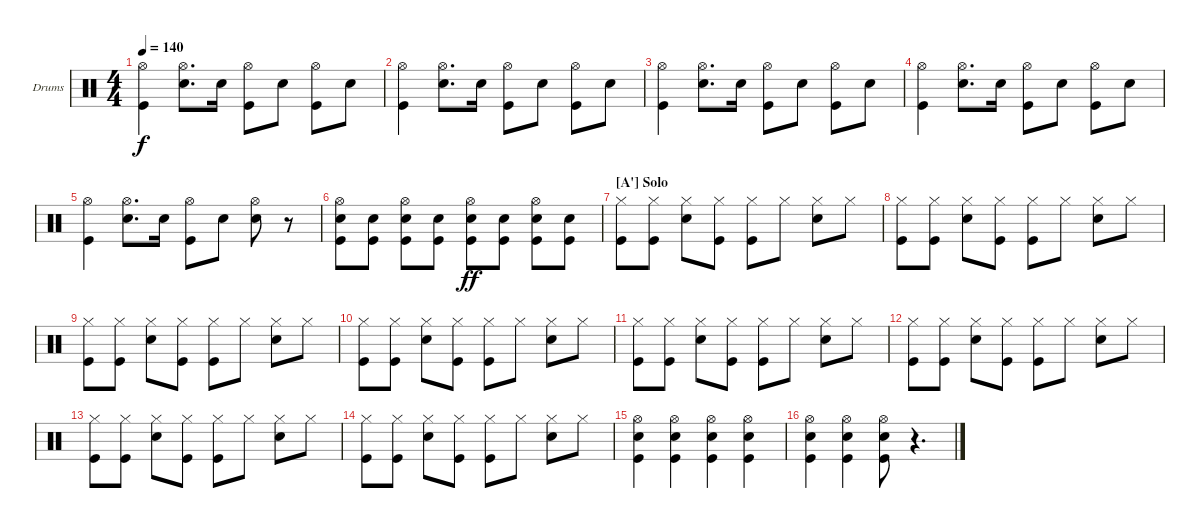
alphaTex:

\bracketExtendMode groupsimilarinstruments
\firstSystemTrackNameOrientation horizontal
\otherSystemsTrackNameOrientation horizontal
\track ("Fabrizio Moretti" "Drums") {instrument percussion}
\staff {score}
\articulation defaults
\ts (4 4)
\tempo 140
\clef neutral
\ks aminor
("Hi-Hat (open)" "Kick (hit)").4{dy f} ("Hi-Hat (open)" "Snare (hit) 2").8{d} "Snare (hit) 2".16 ("Hi-Hat (open)" "Kick (hit)").8 "Snare (hit) 2".8 ("Hi-Hat (open)" "Kick (hit)").8 "Snare (hit) 2".8 |
("Hi-Hat (open)" "Kick (hit)").4 ("Hi-Hat (open)" "Snare (hit) 2").8{d} "Snare (hit) 2".16 ("Hi-Hat (open)" "Kick (hit)").8 "Snare (hit) 2".8 ("Hi-Hat (open)" "Kick (hit)").8 "Snare (hit) 2".8 |
("Hi-Hat (open)" "Kick (hit)").4 ("Hi-Hat (open)" "Snare (hit) 2").8{d} "Snare (hit) 2".16 ("Hi-Hat (open)" "Kick (hit)").8 "Snare (hit) 2".8 ("Hi-Hat (open)" "Kick (hit)").8 "Snare (hit) 2".8 |
("Hi-Hat (open)" "Kick (hit)").4 ("Hi-Hat (open)" "Snare (hit) 2").8{d} "Snare (hit) 2".16 ("Hi-Hat (open)" "Kick (hit)").8 "Snare (hit) 2".8 ("Hi-Hat (open)" "Kick (hit)").8 "Snare (hit) 2".8 |
("Hi-Hat (open)" "Kick (hit)").4 ("Hi-Hat (open)" "Snare (hit) 2").8{d} "Snare (hit) 2".16 ("Hi-Hat (open)" "Kick (hit)").8 "Snare (hit) 2".8 ("Hi-Hat (open)" "Snare (hit) 2").8 r.8 |
("Hi-Hat (open)" "Snare (hit) 2" "Kick (hit)").8 ("Snare (hit) 2" "Kick (hit)").8 ("Hi-Hat (open)" "Snare (hit) 2" "Kick (hit)").8 ("Snare (hit) 2" "Kick (hit)").8 ("Hi-Hat (open)" "Snare (hit) 2" "Kick (hit)").8{dy ff} ("Snare (hit) 2" "Kick (hit)").8 ("Hi-Hat (open)" "Snare (hit) 2" "Kick (hit)").8 ("Snare (hit) 2" "Kick (hit)").8 |
\section ("A'" "Solo")
("Kick (hit)" "Hi-Hat (closed)").8 ("Kick (hit)" "Hi-Hat (closed)").8 ("Snare (hit) 2" "Hi-Hat (closed)").8 ("Kick (hit)" "Hi-Hat (closed)").8 ("Kick (hit)" "Hi-Hat (closed)").8 "Hi-Hat (closed)".8 ("Snare (hit) 2" "Hi-Hat (closed)").8 "Hi-Hat (closed)".8 |
("Kick (hit)" "Hi-Hat (closed)").8 ("Kick (hit)" "Hi-Hat (closed)").8 ("Snare (hit) 2" "Hi-Hat (closed)").8 ("Kick (hit)" "Hi-Hat (closed)").8 ("Kick (hit)" "Hi-Hat (closed)").8 "Hi-Hat (closed)".8 ("Snare (hit) 2" "Hi-Hat (closed)").8 "Hi-Hat (closed)".8 |
("Kick (hit)" "Hi-Hat (closed)").8 ("Kick (hit)" "Hi-Hat (closed)").8 ("Snare (hit) 2" "Hi-Hat (closed)").8 ("Kick (hit)" "Hi-Hat (closed)").8 ("Kick (hit)" "Hi-Hat (closed)").8 "Hi-Hat (closed)".8 ("Snare (hit) 2" "Hi-Hat (closed)").8 "Hi-Hat (closed)".8 |
("Kick (hit)" "Hi-Hat (closed)").8 ("Kick (hit)" "Hi-Hat (closed)").8 ("Snare (hit) 2" "Hi-Hat (closed)").8 ("Kick (hit)" "Hi-Hat (closed)").8 ("Kick (hit)" "Hi-Hat (closed)").8 "Hi-Hat (closed)".8 ("Snare (hit) 2" "Hi-Hat (closed)").8 "Hi-Hat (closed)".8 |
("Kick (hit)" "Hi-Hat (closed)").8 ("Kick (hit)" "Hi-Hat (closed)").8 ("Snare (hit) 2" "Hi-Hat (closed)").8 ("Kick (hit)" "Hi-Hat (closed)").8 ("Kick (hit)" "Hi-Hat (closed)").8 "Hi-Hat (closed)".8 ("Snare (hit) 2" "Hi-Hat (closed)").8 "Hi-Hat (closed)".8 |
("Kick (hit)" "Hi-Hat (closed)").8 ("Kick (hit)" "Hi-Hat (closed)").8 ("Snare (hit) 2" "Hi-Hat (closed)").8 ("Kick (hit)" "Hi-Hat (closed)").8 ("Kick (hit)" "Hi-Hat (closed)").8 "Hi-Hat (closed)".8 ("Snare (hit) 2" "Hi-Hat (closed)").8 "Hi-Hat (closed)".8 |
("Kick (hit)" "Hi-Hat (closed)").8 ("Kick (hit)" "Hi-Hat (closed)").8 ("Snare (hit) 2" "Hi-Hat (closed)").8 ("Kick (hit)" "Hi-Hat (closed)").8 ("Kick (hit)" "Hi-Hat (closed)").8 "Hi-Hat (closed)".8 ("Snare (hit) 2" "Hi-Hat (closed)").8 "Hi-Hat (closed)".8 |
("Kick (hit)" "Hi-Hat (closed)").8 ("Kick (hit)" "Hi-Hat (closed)").8 ("Snare (hit) 2" "Hi-Hat (closed)").8 ("Kick (hit)" "Hi-Hat (closed)").8 ("Kick (hit)" "Hi-Hat (closed)").8 "Hi-Hat (closed)".8 ("Snare (hit) 2" "Hi-Hat (closed)").8 "Hi-Hat (closed)".8 |
("Hi-Hat (open)" "Snare (hit) 2" "Kick (hit)").4 ("Hi-Hat (open)" "Snare (hit) 2" "Kick (hit)").4 ("Hi-Hat (open)" "Snare (hit) 2" "Kick (hit)").4 ("Hi-Hat (open)" "Snare (hit) 2" "Kick (hit)").4 |
("Hi-Hat (open)" "Snare (hit) 2" "Kick (hit)").4 ("Hi-Hat (open)" "Snare (hit) 2" "Kick (hit)").4 ("Hi-Hat (open)" "Snare (hit) 2" "Kick (hit)").8 r.4{d}
